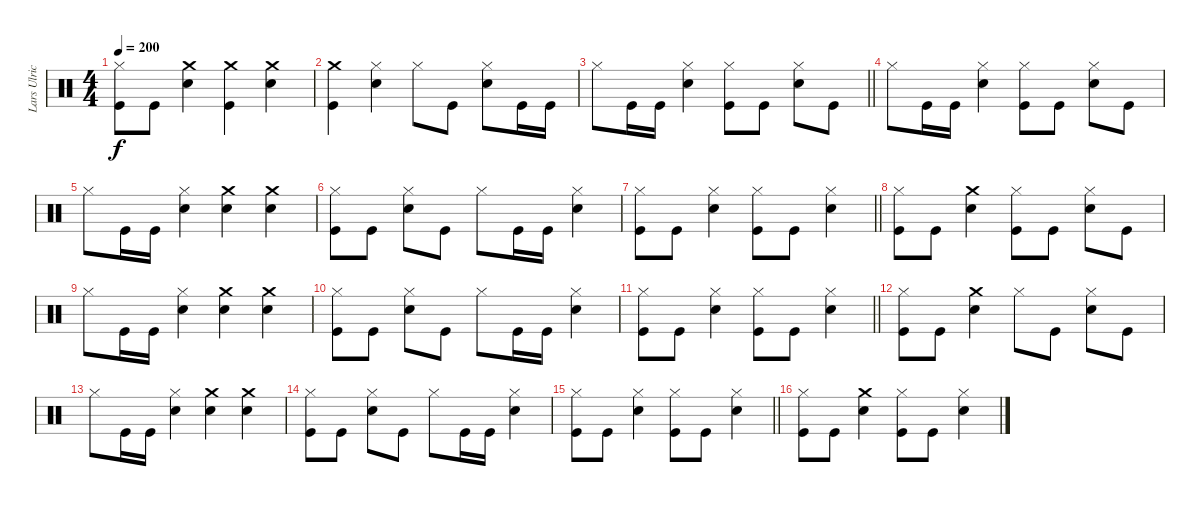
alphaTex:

\track ("Lars Ulrich (Drums)" "Lars Ulric") {instrument percussion}
\staff {score}
\articulation defaults
\ts (4 4)
\tempo 200
\clef neutral
\ks c
("Kick (hit)" "Hi-Hat (closed)").8{dy f} "Kick (hit)".8 ("Crash medium (hit)" "Snare (hit) 2").4 ("Kick (hit)" "Crash medium (hit)").4 ("Crash medium (hit)" "Snare (hit) 2").4 |
("Kick (hit)" "Crash medium (hit)").4 ("Hi-Hat (closed)" "Snare (hit) 2").4 "Hi-Hat (closed)".8 "Kick (hit)".8 ("Snare (hit) 2" "Hi-Hat (closed)").8 "Kick (hit)".16 "Kick (hit)".16 |
\barLineRight lightlight "Hi-Hat (closed)".8 "Kick (hit)".16 "Kick (hit)".16
("Snare (hit) 2" "Hi-Hat (closed)").4 ("Hi-Hat (closed)" "Kick (hit)").8 "Kick (hit)".8 ("Snare (hit) 2" "Hi-Hat (closed)").8 "Kick (hit)".8 |
"Hi-Hat (closed)".8 "Kick (hit)".16 "Kick (hit)".16 ("Snare (hit) 2" "Hi-Hat (closed)").4 ("Hi-Hat (closed)" "Kick (hit)").8 "Kick (hit)".8 ("Snare (hit) 2" "Hi-Hat (closed)").8 "Kick (hit)".8 |
"Hi-Hat (closed)".8 "Kick (hit)".16 "Kick (hit)".16 ("Snare (hit) 2" "Hi-Hat (closed)").4 ("Crash medium (hit)" "Snare (hit) 2").4 ("Crash medium (hit)" "Snare (hit) 2").4 |
("Kick (hit)" "Hi-Hat (closed)").8 "Kick (hit)".8 ("Snare (hit) 2" "Hi-Hat (closed)").8 "Kick (hit)".8 "Hi-Hat (closed)".8 "Kick (hit)".16 "Kick (hit)".16 ("Snare (hit) 2" "Hi-Hat (closed)").4 |
\barLineRight lightlight
("Kick (hit)" "Hi-Hat (closed)").8 "Kick (hit)".8 ("Snare (hit) 2" "Hi-Hat (closed)").4 ("Kick (hit)" "Hi-Hat (closed)").8 "Kick (hit)".8 ("Snare (hit) 2" "Hi-Hat (closed)").4 |
("Kick (hit)" "Hi-Hat (closed)").8 "Kick (hit)".8 ("Crash medium (hit)" "Snare (hit) 2").4 ("Kick (hit)" "Hi-Hat (closed)").8 "Kick (hit)".8 ("Snare (hit) 2" "Hi-Hat (closed)").8 "Kick (hit)".8 |
"Hi-Hat (closed)".8 "Kick (hit)".16 "Kick (hit)".16 ("Snare (hit) 2" "Hi-Hat (closed)").4 ("Crash medium (hit)" "Snare (hit) 2").4 ("Crash medium (hit)" "Snare (hit) 2").4 |
("Kick (hit)" "Hi-Hat (closed)").8 "Kick (hit)".8 ("Snare (hit) 2" "Hi-Hat (closed)").8 "Kick (hit)".8 "Hi-Hat (closed)".8 "Kick (hit)".16 "Kick (hit)".16 ("Snare (hit) 2" "Hi-Hat (closed)").4 |
\barLineRight lightlight
("Kick (hit)" "Hi-Hat (closed)").8 "Kick (hit)".8 ("Snare (hit) 2" "Hi-Hat (closed)").4 ("Kick (hit)" "Hi-Hat (closed)").8 "Kick (hit)".8 ("Snare (hit) 2" "Hi-Hat (closed)").4 |
("Kick (hit)" "Hi-Hat (closed)").8 "Kick (hit)".8 ("Crash medium (hit)" "Snare (hit) 2").4 "Hi-Hat (closed)".8 "Kick (hit)".8 ("Snare (hit) 2" "Hi-Hat (closed)").8 "Kick (hit)".8 |
"Hi-Hat (closed)".8 "Kick (hit)".16 "Kick (hit)".16 ("Snare (hit) 2" "Hi-Hat (closed)").4 ("Crash medium (hit)" "Snare (hit) 2").4 ("Crash medium (hit)" "Snare (hit) 2").4 |
("Kick (hit)" "Hi-Hat (closed)").8 "Kick (hit)".8 ("Snare (hit) 2" "Hi-Hat (closed)").8 "Kick (hit)".8 "Hi-Hat (closed)".8 "Kick (hit)".16 "Kick (hit)".16 ("Snare (hit) 2" "Hi-Hat (closed)").4 |
\barLineRight lightlight
("Kick (hit)" "Hi-Hat (closed)").8 "Kick (hit)".8 ("Snare (hit) 2" "Hi-Hat (closed)").4 ("Kick (hit)" "Hi-Hat (closed)").8 "Kick (hit)".8 ("Snare (hit) 2" "Hi-Hat (closed)").4 |
("Kick (hit)" "Hi-Hat (closed)").8 "Kick (hit)".8 ("Crash medium (hit)" "Snare (hit) 2").4 ("Kick (hit)" "Hi-Hat (closed)").8 "Kick (hit)".8 ("Snare (hit) 2" "Hi-Hat (closed)").4
